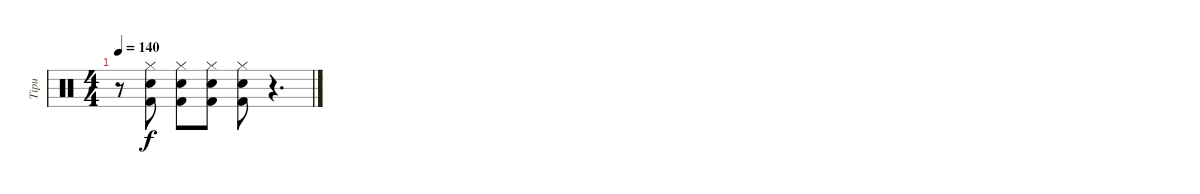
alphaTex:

\track ("Tipu" "Tipu") {instrument percussion}
\staff {score}
\articulation defaults
\ts (4 4)
\tempo 140
\clef neutral
\ks c
r.8{dy f} ("Kick (hit) 2" "Electric Snare (hit)" "Hi-Hat (closed)").8 ("Kick (hit) 2" "Electric Snare (hit)" "Hi-Hat (closed)").8 ("Kick (hit) 2" "Electric Snare (hit)" "Hi-Hat (closed)").8 ("Kick (hit) 2" "Electric Snare (hit)" "Hi-Hat (closed)").8 r.4{d}
